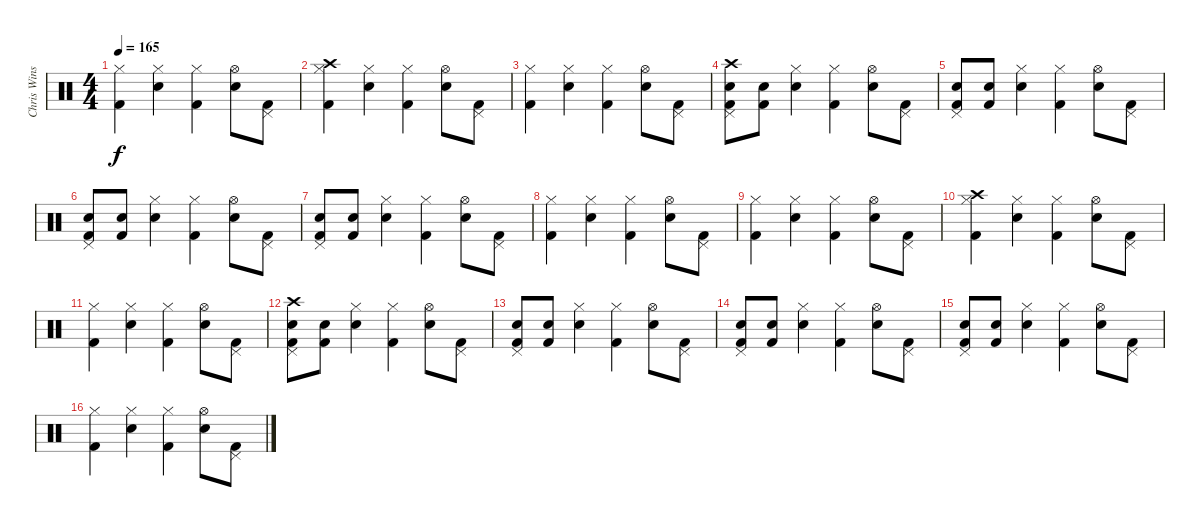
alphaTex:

\track ("Chris Winship (Bass)" "Chris Wins") {instrument percussion}
\staff {score}
\articulation defaults
\ts (4 4)
\tempo 165
\clef neutral
\ks c
("Hi-Hat (closed)" "Kick (hit) 2").4{dy f} ("Hi-Hat (closed)" "Snare (hit) 2").4 ("Hi-Hat (closed)" "Kick (hit) 2").4 ("Hi-Hat (open)" "Snare (hit) 2").8 ("Pedal Hi-Hat (hit)" "Kick (hit) 2").8 |
("Crash high (hit)" "Hi-Hat (closed)" "Kick (hit) 2").4 ("Hi-Hat (closed)" "Snare (hit) 2").4 ("Hi-Hat (closed)" "Kick (hit) 2").4 ("Hi-Hat (open)" "Snare (hit) 2").8 ("Pedal Hi-Hat (hit)" "Kick (hit) 2").8 |
("Hi-Hat (closed)" "Kick (hit) 2").4 ("Hi-Hat (closed)" "Snare (hit) 2").4 ("Hi-Hat (closed)" "Kick (hit) 2").4 ("Hi-Hat (open)" "Snare (hit) 2").8 ("Pedal Hi-Hat (hit)" "Kick (hit) 2").8 |
("Crash high (hit)" "Pedal Hi-Hat (hit)" "Kick (hit) 2" "Snare (hit) 2").8 ("Snare (hit) 2" "Kick (hit) 2").8 ("Hi-Hat (closed)" "Snare (hit) 2").4 ("Hi-Hat (closed)" "Kick (hit) 2").4 ("Hi-Hat (open)" "Snare (hit) 2").8 ("Pedal Hi-Hat (hit)" "Kick (hit) 2").8 |
("Pedal Hi-Hat (hit)" "Kick (hit) 2" "Snare (hit) 2").8 ("Snare (hit) 2" "Kick (hit) 2").8 ("Hi-Hat (closed)" "Snare (hit) 2").4 ("Hi-Hat (closed)" "Kick (hit) 2").4 ("Hi-Hat (open)" "Snare (hit) 2").8 ("Pedal Hi-Hat (hit)" "Kick (hit) 2").8 |
("Pedal Hi-Hat (hit)" "Kick (hit) 2" "Snare (hit) 2").8 ("Snare (hit) 2" "Kick (hit) 2").8 ("Hi-Hat (closed)" "Snare (hit) 2").4 ("Hi-Hat (closed)" "Kick (hit) 2").4 ("Hi-Hat (open)" "Snare (hit) 2").8 ("Pedal Hi-Hat (hit)" "Kick (hit) 2").8 |
("Pedal Hi-Hat (hit)" "Kick (hit) 2" "Snare (hit) 2").8 ("Snare (hit) 2" "Kick (hit) 2").8 ("Hi-Hat (closed)" "Snare (hit) 2").4 ("Hi-Hat (closed)" "Kick (hit) 2").4 ("Hi-Hat (open)" "Snare (hit) 2").8 ("Pedal Hi-Hat (hit)" "Kick (hit) 2").8 |
("Hi-Hat (closed)" "Kick (hit) 2").4 ("Hi-Hat (closed)" "Snare (hit) 2").4 ("Hi-Hat (closed)" "Kick (hit) 2").4 ("Hi-Hat (open)" "Snare (hit) 2").8 ("Pedal Hi-Hat (hit)" "Kick (hit) 2").8 |
("Hi-Hat (closed)" "Kick (hit) 2").4 ("Hi-Hat (closed)" "Snare (hit) 2").4 ("Hi-Hat (closed)" "Kick (hit) 2").4 ("Hi-Hat (open)" "Snare (hit) 2").8 ("Pedal Hi-Hat (hit)" "Kick (hit) 2").8 |
("Crash high (hit)" "Hi-Hat (closed)" "Kick (hit) 2").4 ("Hi-Hat (closed)" "Snare (hit) 2").4 ("Hi-Hat (closed)" "Kick (hit) 2").4 ("Hi-Hat (open)" "Snare (hit) 2").8 ("Pedal Hi-Hat (hit)" "Kick (hit) 2").8 |
("Hi-Hat (closed)" "Kick (hit) 2").4 ("Hi-Hat (closed)" "Snare (hit) 2").4 ("Hi-Hat (closed)" "Kick (hit) 2").4 ("Hi-Hat (open)" "Snare (hit) 2").8 ("Pedal Hi-Hat (hit)" "Kick (hit) 2").8 |
("Crash high (hit)" "Pedal Hi-Hat (hit)" "Kick (hit) 2" "Snare (hit) 2").8 ("Snare (hit) 2" "Kick (hit) 2").8 ("Hi-Hat (closed)" "Snare (hit) 2").4 ("Hi-Hat (closed)" "Kick (hit) 2").4 ("Hi-Hat (open)" "Snare (hit) 2").8 ("Pedal Hi-Hat (hit)" "Kick (hit) 2").8 |
("Pedal Hi-Hat (hit)" "Kick (hit) 2" "Snare (hit) 2").8 ("Snare (hit) 2" "Kick (hit) 2").8 ("Hi-Hat (closed)" "Snare (hit) 2").4 ("Hi-Hat (closed)" "Kick (hit) 2").4 ("Hi-Hat (open)" "Snare (hit) 2").8 ("Pedal Hi-Hat (hit)" "Kick (hit) 2").8 |
("Pedal Hi-Hat (hit)" "Kick (hit) 2" "Snare (hit) 2").8 ("Snare (hit) 2" "Kick (hit) 2").8 ("Hi-Hat (closed)" "Snare (hit) 2").4 ("Hi-Hat (closed)" "Kick (hit) 2").4 ("Hi-Hat (open)" "Snare (hit) 2").8 ("Pedal Hi-Hat (hit)" "Kick (hit) 2").8 |
("Pedal Hi-Hat (hit)" "Kick (hit) 2" "Snare (hit) 2").8 ("Snare (hit) 2" "Kick (hit) 2").8 ("Hi-Hat (closed)" "Snare (hit) 2").4 ("Hi-Hat (closed)" "Kick (hit) 2").4 ("Hi-Hat (open)" "Snare (hit) 2").8 ("Pedal Hi-Hat (hit)" "Kick (hit) 2").8 |
("Hi-Hat (closed)" "Kick (hit) 2").4 ("Hi-Hat (closed)" "Snare (hit) 2").4 ("Hi-Hat (closed)" "Kick (hit) 2").4 ("Hi-Hat (open)" "Snare (hit) 2").8 ("Pedal Hi-Hat (hit)" "Kick (hit) 2").8
